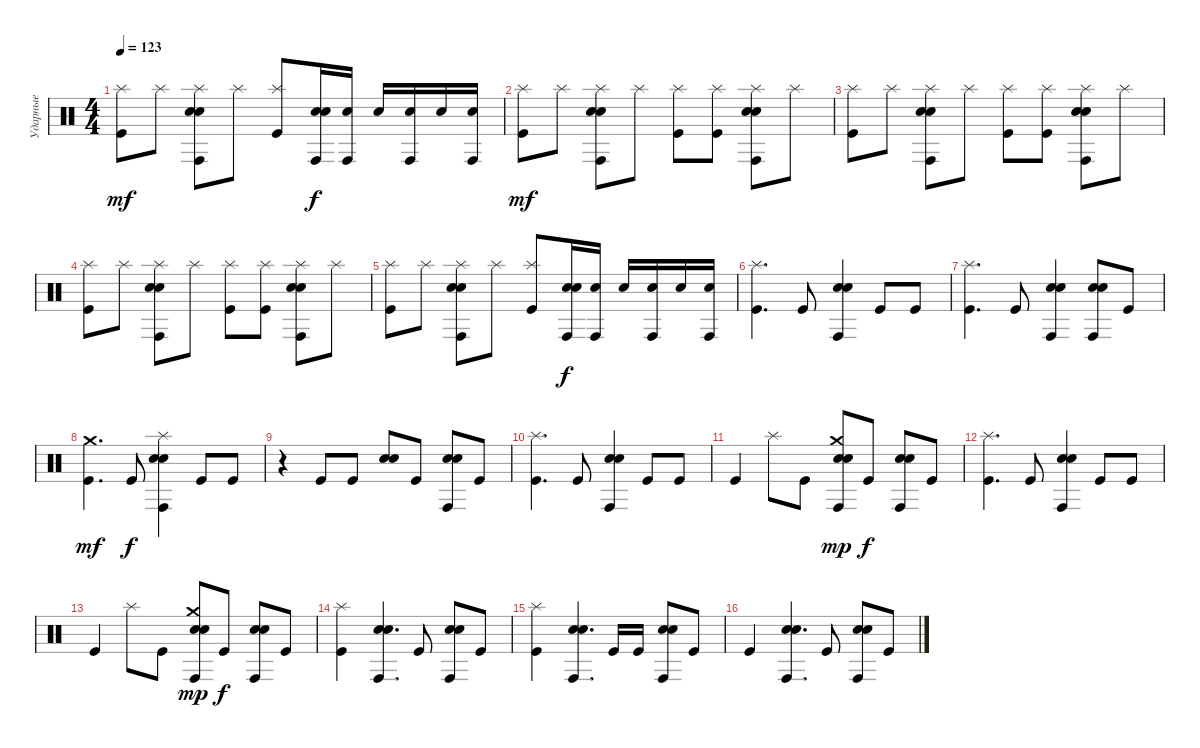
\track ("Ударные" "Ударные") {instrument percussion}
\staff {score}
\articulation defaults
\ts (4 4)
\tempo 123
\clef neutral
\ks c
("Splash (hit)" "Kick (hit)").8{dy mf} "Splash (hit)".8 ("Splash (hit)" "Conga high (hit)" "Electric Snare (hit)" "Snare (hit) 2").8 "Splash (hit)".8 ("Splash (hit)" "Kick (hit)").8 ("Conga high (hit)" "Electric Snare (hit)" "Snare (hit) 2").16{dy f} ("Conga high (hit)" "Electric Snare (hit)").16 "Electric Snare (hit)".16 ("Conga high (hit)" "Electric Snare (hit)").16 "Electric Snare (hit)".16 ("Conga high (hit)" "Electric Snare (hit)").16 |
("Splash (hit)" "Kick (hit)").8{dy mf} "Splash (hit)".8 ("Splash (hit)" "Conga high (hit)" "Electric Snare (hit)" "Snare (hit) 2").8 "Splash (hit)".8 ("Splash (hit)" "Kick (hit)").8 ("Splash (hit)" "Kick (hit)").8 ("Splash (hit)" "Conga high (hit)" "Electric Snare (hit)" "Snare (hit) 2").8 "Splash (hit)".8 |
("Splash (hit)" "Kick (hit)").8 "Splash (hit)".8 ("Splash (hit)" "Conga high (hit)" "Electric Snare (hit)" "Snare (hit) 2").8 "Splash (hit)".8 ("Splash (hit)" "Kick (hit)").8 ("Splash (hit)" "Kick (hit)").8 ("Splash (hit)" "Conga high (hit)" "Electric Snare (hit)" "Snare (hit) 2").8 "Splash (hit)".8 |
("Splash (hit)" "Kick (hit)").8 "Splash (hit)".8 ("Splash (hit)" "Conga high (hit)" "Electric Snare (hit)" "Snare (hit) 2").8 "Splash (hit)".8 ("Splash (hit)" "Kick (hit)").8 ("Splash (hit)" "Kick (hit)").8 ("Splash (hit)" "Conga high (hit)" "Electric Snare (hit)" "Snare (hit) 2").8 "Splash (hit)".8 |
("Splash (hit)" "Kick (hit)").8 "Splash (hit)".8 ("Splash (hit)" "Conga high (hit)" "Electric Snare (hit)" "Snare (hit) 2").8 "Splash (hit)".8 ("Splash (hit)" "Kick (hit)").8 ("Conga high (hit)" "Electric Snare (hit)" "Snare (hit) 2").16{dy f} ("Conga high (hit)" "Electric Snare (hit)").16 "Electric Snare (hit)".16 ("Conga high (hit)" "Electric Snare (hit)").16 "Electric Snare (hit)".16 ("Conga high (hit)" "Electric Snare (hit)").16 |
("Splash (hit)" "Kick (hit)").4{d} "Kick (hit)".8 ("Conga high (hit)" "Electric Snare (hit)" "Snare (hit) 2").4 "Kick (hit)".8 "Kick (hit)".8 |
("Splash (hit)" "Kick (hit)").4{d} "Kick (hit)".8 ("Conga high (hit)" "Electric Snare (hit)" "Snare (hit) 2").4 ("Conga high (hit)" "Electric Snare (hit)" "Snare (hit) 2").8 "Kick (hit)".8 |
("Crash medium (hit)" "Kick (hit)").4{d dy mf} "Kick (hit)".8{dy f} ("Splash (hit)" "Conga high (hit)" "Electric Snare (hit)" "Snare (hit) 2").4 "Kick (hit)".8 "Kick (hit)".8 |
r.4 "Kick (hit)".8 "Kick (hit)".8 ("Electric Snare (hit)" "Snare (hit) 2").8 "Kick (hit)".8 ("Conga high (hit)" "Electric Snare (hit)" "Snare (hit) 2").8 "Kick (hit)".8 |
("Splash (hit)" "Kick (hit)").4{d} "Kick (hit)".8 ("Conga high (hit)" "Electric Snare (hit)" "Snare (hit) 2").4 "Kick (hit)".8 "Kick (hit)".8 |
"Kick (hit)".4 "Splash (hit)".8 "Kick (hit)".8 ("Crash medium (hit)" "Conga high (hit)" "Electric Snare (hit)" "Snare (hit) 2").8{dy mp} "Kick (hit)".8{dy f} ("Conga high (hit)" "Electric Snare (hit)" "Snare (hit) 2").8 "Kick (hit)".8 |
("Splash (hit)" "Kick (hit)").4{d} "Kick (hit)".8 ("Conga high (hit)" "Electric Snare (hit)" "Snare (hit) 2").4 "Kick (hit)".8 "Kick (hit)".8 |
"Kick (hit)".4 "Splash (hit)".8 "Kick (hit)".8 ("Crash medium (hit)" "Conga high (hit)" "Electric Snare (hit)" "Snare (hit) 2").8{dy mp} "Kick (hit)".8{dy f} ("Conga high (hit)" "Electric Snare (hit)" "Snare (hit) 2").8 "Kick (hit)".8 |
("Splash (hit)" "Kick (hit)").4 ("Conga high (hit)" "Electric Snare (hit)" "Snare (hit) 2").4{d} "Kick (hit)".8 ("Conga high (hit)" "Electric Snare (hit)" "Snare (hit) 2").8 "Kick (hit)".8 |
("Splash (hit)" "Kick (hit)").4 ("Conga high (hit)" "Electric Snare (hit)" "Snare (hit) 2").4{d} "Kick (hit)".16 "Kick (hit)".16 ("Conga high (hit)" "Electric Snare (hit)" "Snare (hit) 2").8 "Kick (hit)".8 |
"Kick (hit)".4 ("Conga high (hit)" "Electric Snare (hit)" "Snare (hit) 2").4{d} "Kick (hit)".8 ("Conga high (hit)" "Electric Snare (hit)" "Snare (hit) 2").8 "Kick (hit)".8
